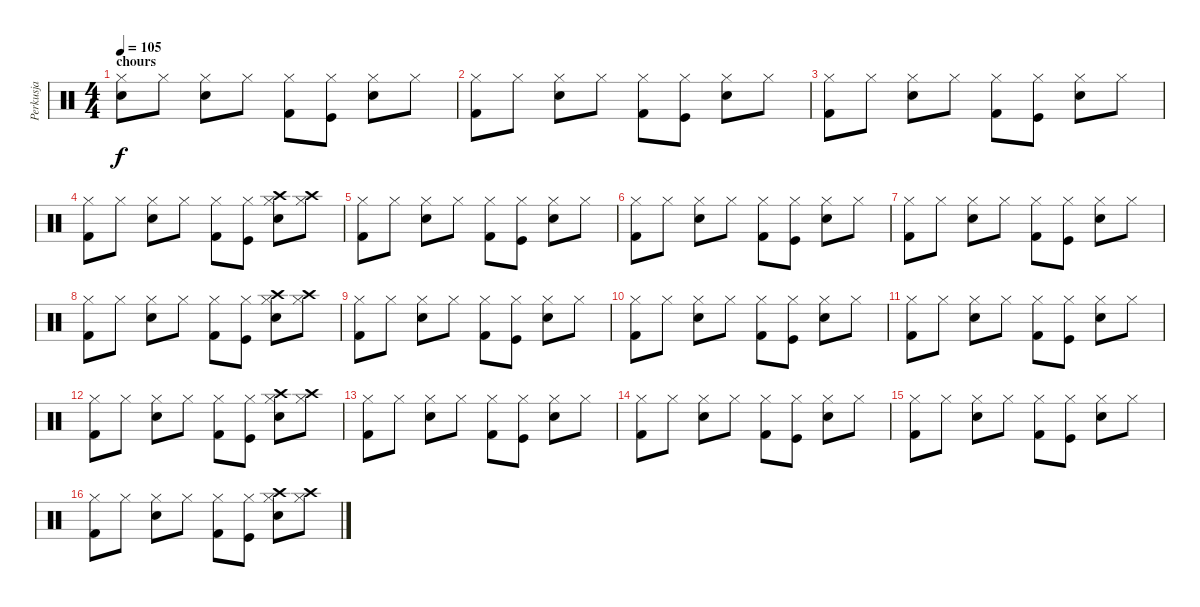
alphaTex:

\track ("Perkusja" "Perkusja") {instrument percussion}
\staff {score}
\articulation defaults
\ts (4 4)
\section ("" "chours")
\tempo 105
\clef neutral
\ks c
("Snare (hit)" "Hi-Hat (closed)").8{dy f} "Hi-Hat (closed)".8 ("Snare (hit) 2" "Hi-Hat (closed)").8 "Hi-Hat (closed)".8 ("Kick (hit) 2" "Hi-Hat (closed)").8 ("Kick (hit)" "Hi-Hat (closed)").8 ("Snare (hit) 2" "Hi-Hat (closed)").8 "Hi-Hat (closed)".8 |
("Kick (hit) 2" "Hi-Hat (closed)").8 "Hi-Hat (closed)".8 ("Snare (hit) 2" "Hi-Hat (closed)").8 "Hi-Hat (closed)".8 ("Kick (hit) 2" "Hi-Hat (closed)").8 ("Kick (hit)" "Hi-Hat (closed)").8 ("Snare (hit) 2" "Hi-Hat (closed)").8 "Hi-Hat (closed)".8 |
("Kick (hit) 2" "Hi-Hat (closed)").8 "Hi-Hat (closed)".8 ("Snare (hit) 2" "Hi-Hat (closed)").8 "Hi-Hat (closed)".8 ("Kick (hit) 2" "Hi-Hat (closed)").8 ("Kick (hit)" "Hi-Hat (closed)").8 ("Snare (hit) 2" "Hi-Hat (closed)").8 "Hi-Hat (closed)".8 |
("Kick (hit) 2" "Hi-Hat (closed)").8 "Hi-Hat (closed)".8 ("Snare (hit) 2" "Hi-Hat (closed)").8 "Hi-Hat (closed)".8 ("Kick (hit) 2" "Hi-Hat (closed)").8 ("Kick (hit)" "Hi-Hat (closed)").8 ("Crash high (hit)" "Snare (hit) 2" "Hi-Hat (closed)").8 ("Crash high (hit)" "Hi-Hat (closed)").8 |
("Kick (hit) 2" "Hi-Hat (closed)").8 "Hi-Hat (closed)".8 ("Snare (hit) 2" "Hi-Hat (closed)").8 "Hi-Hat (closed)".8 ("Kick (hit) 2" "Hi-Hat (closed)").8 ("Kick (hit)" "Hi-Hat (closed)").8 ("Snare (hit) 2" "Hi-Hat (closed)").8 "Hi-Hat (closed)".8 |
("Kick (hit) 2" "Hi-Hat (closed)").8 "Hi-Hat (closed)".8 ("Snare (hit) 2" "Hi-Hat (closed)").8 "Hi-Hat (closed)".8 ("Kick (hit) 2" "Hi-Hat (closed)").8 ("Kick (hit)" "Hi-Hat (closed)").8 ("Snare (hit) 2" "Hi-Hat (closed)").8 "Hi-Hat (closed)".8 |
("Kick (hit) 2" "Hi-Hat (closed)").8 "Hi-Hat (closed)".8 ("Snare (hit) 2" "Hi-Hat (closed)").8 "Hi-Hat (closed)".8 ("Kick (hit) 2" "Hi-Hat (closed)").8 ("Kick (hit)" "Hi-Hat (closed)").8 ("Snare (hit) 2" "Hi-Hat (closed)").8 "Hi-Hat (closed)".8 |
("Kick (hit) 2" "Hi-Hat (closed)").8 "Hi-Hat (closed)".8 ("Snare (hit) 2" "Hi-Hat (closed)").8 "Hi-Hat (closed)".8 ("Kick (hit) 2" "Hi-Hat (closed)").8 ("Kick (hit)" "Hi-Hat (closed)").8 ("Crash high (hit)" "Snare (hit) 2" "Hi-Hat (closed)").8 ("Crash high (hit)" "Hi-Hat (closed)").8 |
("Kick (hit) 2" "Hi-Hat (closed)").8 "Hi-Hat (closed)".8 ("Snare (hit) 2" "Hi-Hat (closed)").8 "Hi-Hat (closed)".8 ("Kick (hit) 2" "Hi-Hat (closed)").8 ("Kick (hit)" "Hi-Hat (closed)").8 ("Snare (hit) 2" "Hi-Hat (closed)").8 "Hi-Hat (closed)".8 |
("Kick (hit) 2" "Hi-Hat (closed)").8 "Hi-Hat (closed)".8 ("Snare (hit) 2" "Hi-Hat (closed)").8 "Hi-Hat (closed)".8 ("Kick (hit) 2" "Hi-Hat (closed)").8 ("Kick (hit)" "Hi-Hat (closed)").8 ("Snare (hit) 2" "Hi-Hat (closed)").8 "Hi-Hat (closed)".8 |
("Kick (hit) 2" "Hi-Hat (closed)").8 "Hi-Hat (closed)".8 ("Snare (hit) 2" "Hi-Hat (closed)").8 "Hi-Hat (closed)".8 ("Kick (hit) 2" "Hi-Hat (closed)").8 ("Kick (hit)" "Hi-Hat (closed)").8 ("Snare (hit) 2" "Hi-Hat (closed)").8 "Hi-Hat (closed)".8 |
("Kick (hit) 2" "Hi-Hat (closed)").8 "Hi-Hat (closed)".8 ("Snare (hit) 2" "Hi-Hat (closed)").8 "Hi-Hat (closed)".8 ("Kick (hit) 2" "Hi-Hat (closed)").8 ("Kick (hit)" "Hi-Hat (closed)").8 ("Crash high (hit)" "Snare (hit) 2" "Hi-Hat (closed)").8 ("Crash high (hit)" "Hi-Hat (closed)").8 |
("Kick (hit) 2" "Hi-Hat (closed)").8 "Hi-Hat (closed)".8 ("Snare (hit) 2" "Hi-Hat (closed)").8 "Hi-Hat (closed)".8 ("Kick (hit) 2" "Hi-Hat (closed)").8 ("Kick (hit)" "Hi-Hat (closed)").8 ("Snare (hit) 2" "Hi-Hat (closed)").8 "Hi-Hat (closed)".8 |
("Kick (hit) 2" "Hi-Hat (closed)").8 "Hi-Hat (closed)".8 ("Snare (hit) 2" "Hi-Hat (closed)").8 "Hi-Hat (closed)".8 ("Kick (hit) 2" "Hi-Hat (closed)").8 ("Kick (hit)" "Hi-Hat (closed)").8 ("Snare (hit) 2" "Hi-Hat (closed)").8 "Hi-Hat (closed)".8 |
("Kick (hit) 2" "Hi-Hat (closed)").8 "Hi-Hat (closed)".8 ("Snare (hit) 2" "Hi-Hat (closed)").8 "Hi-Hat (closed)".8 ("Kick (hit) 2" "Hi-Hat (closed)").8 ("Kick (hit)" "Hi-Hat (closed)").8 ("Snare (hit) 2" "Hi-Hat (closed)").8 "Hi-Hat (closed)".8 |
("Kick (hit) 2" "Hi-Hat (closed)").8 "Hi-Hat (closed)".8 ("Snare (hit) 2" "Hi-Hat (closed)").8 "Hi-Hat (closed)".8 ("Kick (hit) 2" "Hi-Hat (closed)").8 ("Kick (hit)" "Hi-Hat (closed)").8 ("Crash high (hit)" "Snare (hit) 2" "Hi-Hat (closed)").8 ("Crash high (hit)" "Hi-Hat (closed)").8
